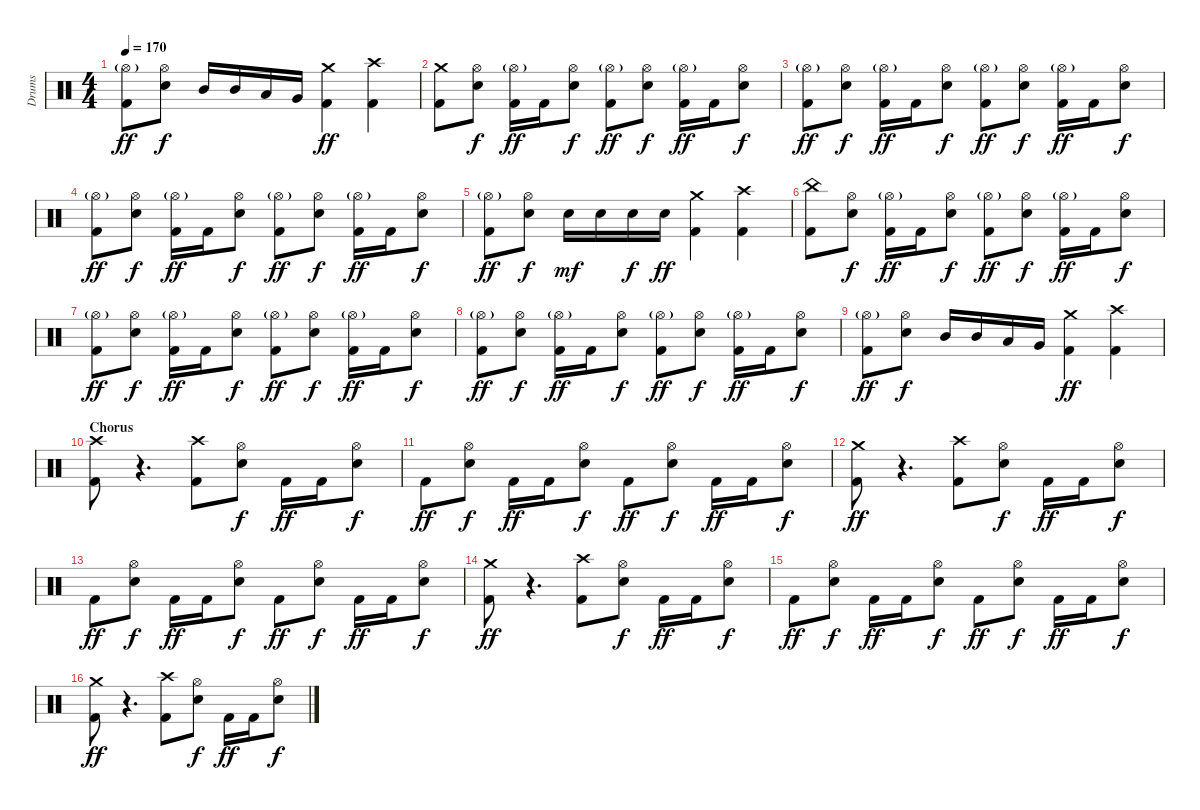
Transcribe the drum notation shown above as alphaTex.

\track ("Drums" "Drums") {instrument percussion}
\staff {score}
\articulation defaults
\ts (4 4)
\tempo 170
\clef neutral
\ks c
("Hi-Hat (open)"{g} "Kick (hit) 2").8{dy ff} ("Hi-Hat (open)" "Electric Snare (hit)").8{dy f} "Mid Tom (hit)".16 "Mid Tom (hit)".16 "Low Tom (hit)".16 "Very Low Tom (hit)".16 ("Crash medium (hit)" "Kick (hit) 2").4{dy ff} ("Crash high (hit)" "Kick (hit) 2").4 |
("Crash medium (hit)" "Kick (hit) 2").8 ("Hi-Hat (open)" "Electric Snare (hit)").8{dy f} ("Hi-Hat (open)"{g} "Kick (hit) 2").16{dy ff} "Kick (hit) 2".16 ("Hi-Hat (open)" "Electric Snare (hit)").8{dy f} ("Hi-Hat (open)"{g} "Kick (hit) 2").8{dy ff} ("Hi-Hat (open)" "Electric Snare (hit)").8{dy f} ("Hi-Hat (open)"{g} "Kick (hit) 2").16{dy ff} "Kick (hit) 2".16 ("Hi-Hat (open)" "Electric Snare (hit)").8{dy f} |
("Hi-Hat (open)"{g} "Kick (hit) 2").8{dy ff} ("Hi-Hat (open)" "Electric Snare (hit)").8{dy f} ("Hi-Hat (open)"{g} "Kick (hit) 2").16{dy ff} "Kick (hit) 2".16 ("Hi-Hat (open)" "Electric Snare (hit)").8{dy f} ("Hi-Hat (open)"{g} "Kick (hit) 2").8{dy ff} ("Hi-Hat (open)" "Electric Snare (hit)").8{dy f} ("Hi-Hat (open)"{g} "Kick (hit) 2").16{dy ff} "Kick (hit) 2".16 ("Hi-Hat (open)" "Electric Snare (hit)").8{dy f} |
("Hi-Hat (open)"{g} "Kick (hit) 2").8{dy ff} ("Hi-Hat (open)" "Electric Snare (hit)").8{dy f} ("Hi-Hat (open)"{g} "Kick (hit) 2").16{dy ff} "Kick (hit) 2".16 ("Hi-Hat (open)" "Electric Snare (hit)").8{dy f} ("Hi-Hat (open)"{g} "Kick (hit) 2").8{dy ff} ("Hi-Hat (open)" "Electric Snare (hit)").8{dy f} ("Hi-Hat (open)"{g} "Kick (hit) 2").16{dy ff} "Kick (hit) 2".16 ("Hi-Hat (open)" "Electric Snare (hit)").8{dy f} |
("Hi-Hat (open)"{g} "Kick (hit) 2").8{dy ff} ("Hi-Hat (open)" "Electric Snare (hit)").8{dy f} "Electric Snare (hit)".16{dy mf} "Electric Snare (hit)".16 "Electric Snare (hit)".16{dy f} "Electric Snare (hit)".16{dy ff} ("Crash medium (hit)" "Kick (hit) 2").4 ("Crash high (hit)" "Kick (hit) 2").4 |
("China (hit)" "Kick (hit) 2").8 ("Hi-Hat (open)" "Electric Snare (hit)").8{dy f} ("Hi-Hat (open)"{g} "Kick (hit) 2").16{dy ff} "Kick (hit) 2".16 ("Hi-Hat (open)" "Electric Snare (hit)").8{dy f} ("Hi-Hat (open)"{g} "Kick (hit) 2").8{dy ff} ("Hi-Hat (open)" "Electric Snare (hit)").8{dy f} ("Hi-Hat (open)"{g} "Kick (hit) 2").16{dy ff} "Kick (hit) 2".16 ("Hi-Hat (open)" "Electric Snare (hit)").8{dy f} |
("Hi-Hat (open)"{g} "Kick (hit) 2").8{dy ff} ("Hi-Hat (open)" "Electric Snare (hit)").8{dy f} ("Hi-Hat (open)"{g} "Kick (hit) 2").16{dy ff} "Kick (hit) 2".16 ("Hi-Hat (open)" "Electric Snare (hit)").8{dy f} ("Hi-Hat (open)"{g} "Kick (hit) 2").8{dy ff} ("Hi-Hat (open)" "Electric Snare (hit)").8{dy f} ("Hi-Hat (open)"{g} "Kick (hit) 2").16{dy ff} "Kick (hit) 2".16 ("Hi-Hat (open)" "Electric Snare (hit)").8{dy f} |
("Hi-Hat (open)"{g} "Kick (hit) 2").8{dy ff} ("Hi-Hat (open)" "Electric Snare (hit)").8{dy f} ("Hi-Hat (open)"{g} "Kick (hit) 2").16{dy ff} "Kick (hit) 2".16 ("Hi-Hat (open)" "Electric Snare (hit)").8{dy f} ("Hi-Hat (open)"{g} "Kick (hit) 2").8{dy ff} ("Hi-Hat (open)" "Electric Snare (hit)").8{dy f} ("Hi-Hat (open)"{g} "Kick (hit) 2").16{dy ff} "Kick (hit) 2".16 ("Hi-Hat (open)" "Electric Snare (hit)").8{dy f} |
("Hi-Hat (open)"{g} "Kick (hit) 2").8{dy ff} ("Hi-Hat (open)" "Electric Snare (hit)").8{dy f} "Mid Tom (hit)".16 "Mid Tom (hit)".16 "Low Tom (hit)".16 "Very Low Tom (hit)".16 ("Crash medium (hit)" "Kick (hit) 2").4{dy ff} ("Crash high (hit)" "Kick (hit) 2").4 |
\section ("" "Chorus")
("Crash high (hit)" "Kick (hit) 2").8 r.4{d volume 4} ("Crash high (hit)" "Kick (hit) 2").8{volume 13} ("Hi-Hat (open)" "Electric Snare (hit)").8{dy f} "Kick (hit) 2".16{dy ff} "Kick (hit) 2".16 ("Hi-Hat (open)" "Electric Snare (hit)").8{dy f} |
"Kick (hit) 2".8{dy ff} ("Hi-Hat (open)" "Electric Snare (hit)").8{dy f} "Kick (hit) 2".16{dy ff} "Kick (hit) 2".16 ("Hi-Hat (open)" "Electric Snare (hit)").8{dy f} "Kick (hit) 2".8{dy ff} ("Hi-Hat (open)" "Electric Snare (hit)").8{dy f} "Kick (hit) 2".16{dy ff} "Kick (hit) 2".16 ("Hi-Hat (open)" "Electric Snare (hit)").8{dy f} |
("Crash medium (hit)" "Kick (hit) 2").8{dy ff volume 13} r.4{d volume 4} ("Crash high (hit)" "Kick (hit) 2").8{volume 13} ("Hi-Hat (open)" "Electric Snare (hit)").8{dy f} "Kick (hit) 2".16{dy ff} "Kick (hit) 2".16 ("Hi-Hat (open)" "Electric Snare (hit)").8{dy f} |
"Kick (hit) 2".8{dy ff} ("Hi-Hat (open)" "Electric Snare (hit)").8{dy f} "Kick (hit) 2".16{dy ff} "Kick (hit) 2".16 ("Hi-Hat (open)" "Electric Snare (hit)").8{dy f} "Kick (hit) 2".8{dy ff} ("Hi-Hat (open)" "Electric Snare (hit)").8{dy f} "Kick (hit) 2".16{dy ff} "Kick (hit) 2".16 ("Hi-Hat (open)" "Electric Snare (hit)").8{dy f} |
("Crash medium (hit)" "Kick (hit) 2").8{dy ff volume 13} r.4{d volume 4} ("Crash high (hit)" "Kick (hit) 2").8{volume 13} ("Hi-Hat (open)" "Electric Snare (hit)").8{dy f} "Kick (hit) 2".16{dy ff} "Kick (hit) 2".16 ("Hi-Hat (open)" "Electric Snare (hit)").8{dy f} |
"Kick (hit) 2".8{dy ff} ("Hi-Hat (open)" "Electric Snare (hit)").8{dy f} "Kick (hit) 2".16{dy ff} "Kick (hit) 2".16 ("Hi-Hat (open)" "Electric Snare (hit)").8{dy f} "Kick (hit) 2".8{dy ff} ("Hi-Hat (open)" "Electric Snare (hit)").8{dy f} "Kick (hit) 2".16{dy ff} "Kick (hit) 2".16 ("Hi-Hat (open)" "Electric Snare (hit)").8{dy f} |
("Crash medium (hit)" "Kick (hit) 2").8{dy ff volume 13} r.4{d volume 4} ("Crash high (hit)" "Kick (hit) 2").8{volume 13} ("Hi-Hat (open)" "Electric Snare (hit)").8{dy f} "Kick (hit) 2".16{dy ff} "Kick (hit) 2".16 ("Hi-Hat (open)" "Electric Snare (hit)").8{dy f}
